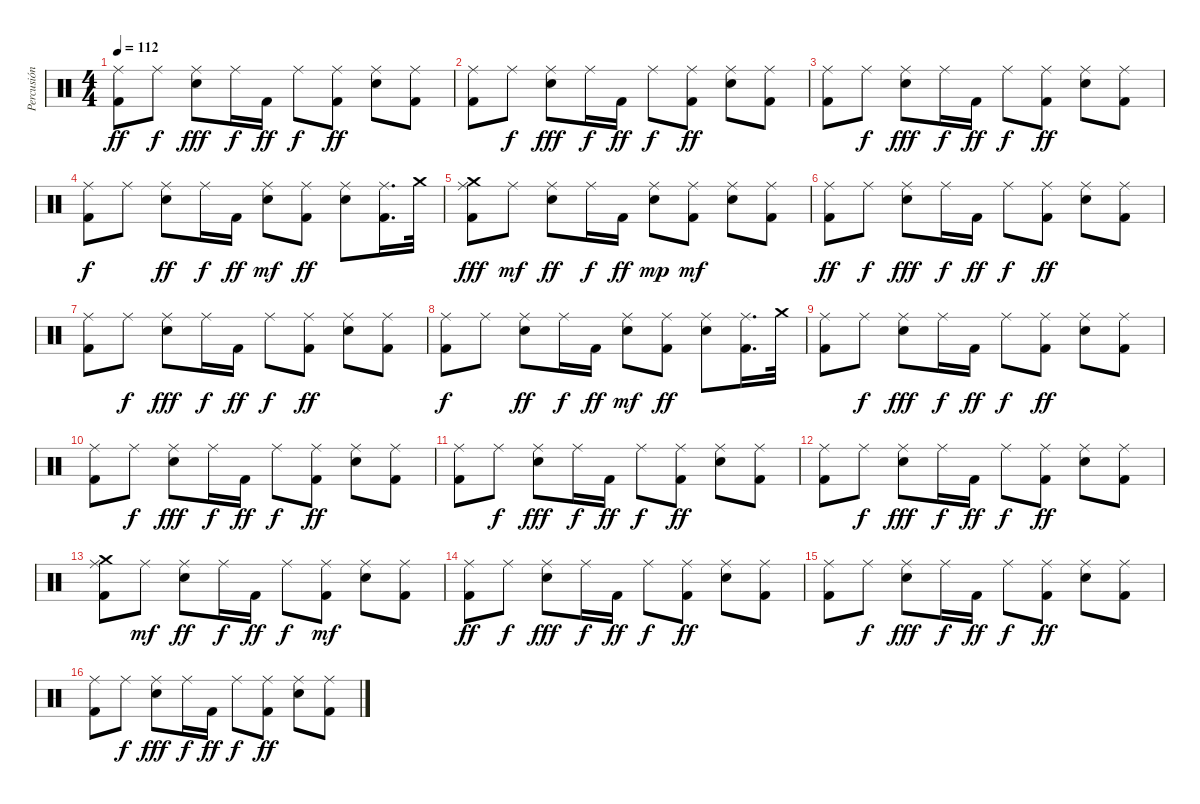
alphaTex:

\track ("Percusión" "Percusión") {instrument percussion}
\staff {score}
\articulation defaults
\ts (4 4)
\tempo 112
\clef neutral
\ks c
("Kick (hit) 2" "Ride (middle)").8{dy ff} "Ride (middle)".8{dy f} ("Snare (hit) 2" "Ride (middle)").8{dy fff} "Ride (middle)".16{dy f} "Kick (hit) 2".16{dy ff} "Ride (middle)".8{dy f} ("Kick (hit) 2" "Ride (middle)").8{dy ff} ("Snare (hit) 2" "Ride (middle)").8 ("Kick (hit) 2" "Ride (middle)").8 |
("Kick (hit) 2" "Ride (middle)").8 "Ride (middle)".8{dy f} ("Snare (hit) 2" "Ride (middle)").8{dy fff} "Ride (middle)".16{dy f} "Kick (hit) 2".16{dy ff} "Ride (middle)".8{dy f} ("Kick (hit) 2" "Ride (middle)").8{dy ff} ("Snare (hit) 2" "Ride (middle)").8 ("Kick (hit) 2" "Ride (middle)").8 |
("Kick (hit) 2" "Ride (middle)").8 "Ride (middle)".8{dy f} ("Snare (hit) 2" "Ride (middle)").8{dy fff} "Ride (middle)".16{dy f} "Kick (hit) 2".16{dy ff} "Ride (middle)".8{dy f} ("Kick (hit) 2" "Ride (middle)").8{dy ff} ("Snare (hit) 2" "Ride (middle)").8 ("Kick (hit) 2" "Ride (middle)").8 |
("Ride (middle)" "Kick (hit) 2").8{dy f} "Ride (middle)".8 ("Ride (middle)" "Snare (hit) 2").8{dy ff} "Ride (middle)".16{dy f} "Kick (hit) 2".16{dy ff} ("Snare (hit)" "Ride (middle)").8{dy mf} ("Ride (middle)" "Kick (hit) 2").8{dy ff} ("Ride (middle)" "Snare (hit) 2").8 ("Ride (middle)" "Kick (hit) 2").16{d} "Crash medium (hit)".32 |
("Crash medium (hit)" "Kick (hit) 2" "Ride (middle)").8{dy fff} "Ride (middle)".8{dy mf} ("Snare (hit) 2" "Ride (middle)").8{dy ff} "Ride (middle)".16{dy f} "Kick (hit) 2".16{dy ff} ("Snare (hit)" "Ride (middle)").8{dy mp} ("Kick (hit) 2" "Ride (middle)").8{dy mf} ("Snare (hit) 2" "Ride (middle)").8 ("Kick (hit) 2" "Ride (middle)").8 |
("Kick (hit) 2" "Ride (middle)").8{dy ff} "Ride (middle)".8{dy f} ("Snare (hit) 2" "Ride (middle)").8{dy fff} "Ride (middle)".16{dy f} "Kick (hit) 2".16{dy ff} "Ride (middle)".8{dy f} ("Kick (hit) 2" "Ride (middle)").8{dy ff} ("Snare (hit) 2" "Ride (middle)").8 ("Kick (hit) 2" "Ride (middle)").8 |
("Kick (hit) 2" "Ride (middle)").8 "Ride (middle)".8{dy f} ("Snare (hit) 2" "Ride (middle)").8{dy fff} "Ride (middle)".16{dy f} "Kick (hit) 2".16{dy ff} "Ride (middle)".8{dy f} ("Kick (hit) 2" "Ride (middle)").8{dy ff} ("Snare (hit) 2" "Ride (middle)").8 ("Kick (hit) 2" "Ride (middle)").8 |
("Ride (middle)" "Kick (hit) 2").8{dy f} "Ride (middle)".8 ("Ride (middle)" "Snare (hit) 2").8{dy ff} "Ride (middle)".16{dy f} "Kick (hit) 2".16{dy ff} ("Snare (hit)" "Ride (middle)").8{dy mf} ("Ride (middle)" "Kick (hit) 2").8{dy ff} ("Ride (middle)" "Snare (hit) 2").8 ("Ride (middle)" "Kick (hit) 2").16{d} "Crash medium (hit)".32 |
("Kick (hit) 2" "Ride (middle)").8 "Ride (middle)".8{dy f} ("Snare (hit) 2" "Ride (middle)").8{dy fff} "Ride (middle)".16{dy f} "Kick (hit) 2".16{dy ff} "Ride (middle)".8{dy f} ("Kick (hit) 2" "Ride (middle)").8{dy ff} ("Snare (hit) 2" "Ride (middle)").8 ("Kick (hit) 2" "Ride (middle)").8 |
("Kick (hit) 2" "Ride (middle)").8 "Ride (middle)".8{dy f} ("Snare (hit) 2" "Ride (middle)").8{dy fff} "Ride (middle)".16{dy f} "Kick (hit) 2".16{dy ff} "Ride (middle)".8{dy f} ("Kick (hit) 2" "Ride (middle)").8{dy ff} ("Snare (hit) 2" "Ride (middle)").8 ("Kick (hit) 2" "Ride (middle)").8 |
("Kick (hit) 2" "Ride (middle)").8 "Ride (middle)".8{dy f} ("Snare (hit) 2" "Ride (middle)").8{dy fff} "Ride (middle)".16{dy f} "Kick (hit) 2".16{dy ff} "Ride (middle)".8{dy f} ("Kick (hit) 2" "Ride (middle)").8{dy ff} ("Snare (hit) 2" "Ride (middle)").8 ("Kick (hit) 2" "Ride (middle)").8 |
("Kick (hit) 2" "Ride (middle)").8 "Ride (middle)".8{dy f} ("Snare (hit) 2" "Ride (middle)").8{dy fff} "Ride (middle)".16{dy f} "Kick (hit) 2".16{dy ff} "Ride (middle)".8{dy f} ("Kick (hit) 2" "Ride (middle)").8{dy ff} ("Snare (hit) 2" "Ride (middle)").8 ("Kick (hit) 2" "Ride (middle)").8 |
("Kick (hit) 2" "Ride (middle)" "Crash medium (hit)").8 "Ride (middle)".8{dy mf} ("Snare (hit) 2" "Ride (middle)").8{dy ff} "Ride (middle)".16{dy f} "Kick (hit) 2".16{dy ff} "Ride (middle)".8{dy f} ("Kick (hit) 2" "Ride (middle)").8{dy mf} ("Snare (hit) 2" "Ride (middle)").8 ("Kick (hit) 2" "Ride (middle)").8 |
("Kick (hit) 2" "Ride (middle)").8{dy ff} "Ride (middle)".8{dy f} ("Snare (hit) 2" "Ride (middle)").8{dy fff} "Ride (middle)".16{dy f} "Kick (hit) 2".16{dy ff} "Ride (middle)".8{dy f} ("Kick (hit) 2" "Ride (middle)").8{dy ff} ("Snare (hit) 2" "Ride (middle)").8 ("Kick (hit) 2" "Ride (middle)").8 |
("Kick (hit) 2" "Ride (middle)").8 "Ride (middle)".8{dy f} ("Snare (hit) 2" "Ride (middle)").8{dy fff} "Ride (middle)".16{dy f} "Kick (hit) 2".16{dy ff} "Ride (middle)".8{dy f} ("Kick (hit) 2" "Ride (middle)").8{dy ff} ("Snare (hit) 2" "Ride (middle)").8 ("Kick (hit) 2" "Ride (middle)").8 |
("Kick (hit) 2" "Ride (middle)").8 "Ride (middle)".8{dy f} ("Snare (hit) 2" "Ride (middle)").8{dy fff} "Ride (middle)".16{dy f} "Kick (hit) 2".16{dy ff} "Ride (middle)".8{dy f} ("Kick (hit) 2" "Ride (middle)").8{dy ff} ("Snare (hit) 2" "Ride (middle)").8 ("Kick (hit) 2" "Ride (middle)").8
